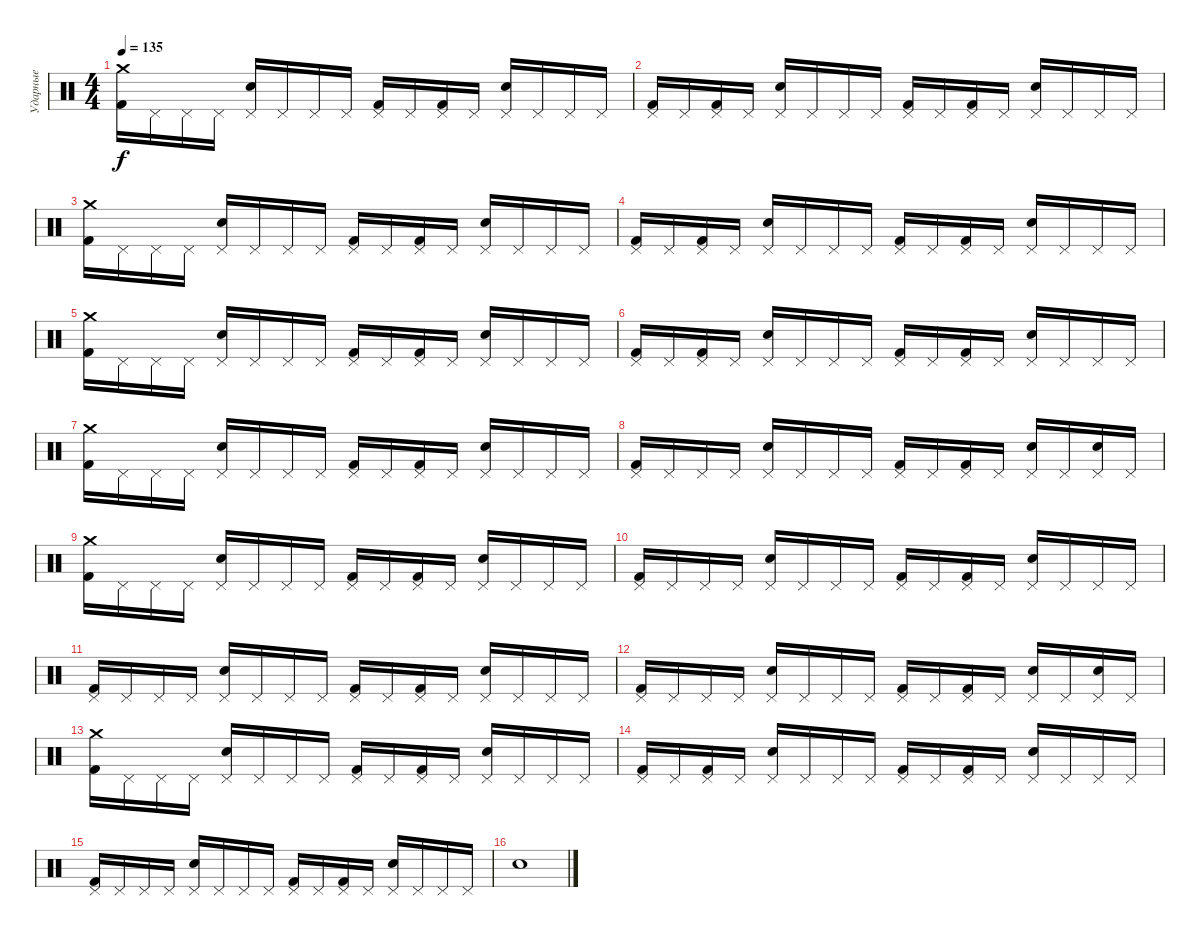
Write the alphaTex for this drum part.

\track ("Ударные" "Ударные") {instrument percussion}
\staff {score}
\articulation defaults
\ts (4 4)
\tempo 135
\clef neutral
\ks c
("Crash medium (hit)" "Kick (hit) 2").16{dy f} "Pedal Hi-Hat (hit)".16 "Pedal Hi-Hat (hit)".16 "Pedal Hi-Hat (hit)".16 ("Pedal Hi-Hat (hit)" "Snare (hit) 2").16 "Pedal Hi-Hat (hit)".16 "Pedal Hi-Hat (hit)".16 "Pedal Hi-Hat (hit)".16 ("Pedal Hi-Hat (hit)" "Kick (hit) 2").16 "Pedal Hi-Hat (hit)".16 ("Pedal Hi-Hat (hit)" "Kick (hit) 2").16 "Pedal Hi-Hat (hit)".16 ("Pedal Hi-Hat (hit)" "Snare (hit) 2").16 "Pedal Hi-Hat (hit)".16 "Pedal Hi-Hat (hit)".16 "Pedal Hi-Hat (hit)".16 |
("Pedal Hi-Hat (hit)" "Kick (hit) 2").16 "Pedal Hi-Hat (hit)".16 ("Pedal Hi-Hat (hit)" "Kick (hit) 2").16 "Pedal Hi-Hat (hit)".16 ("Pedal Hi-Hat (hit)" "Snare (hit) 2").16 "Pedal Hi-Hat (hit)".16 "Pedal Hi-Hat (hit)".16 "Pedal Hi-Hat (hit)".16 ("Pedal Hi-Hat (hit)" "Kick (hit) 2").16 "Pedal Hi-Hat (hit)".16 ("Pedal Hi-Hat (hit)" "Kick (hit) 2").16 "Pedal Hi-Hat (hit)".16 ("Pedal Hi-Hat (hit)" "Snare (hit) 2").16 "Pedal Hi-Hat (hit)".16 "Pedal Hi-Hat (hit)".16 "Pedal Hi-Hat (hit)".16 |
("Crash medium (hit)" "Kick (hit) 2").16 "Pedal Hi-Hat (hit)".16 "Pedal Hi-Hat (hit)".16 "Pedal Hi-Hat (hit)".16 ("Pedal Hi-Hat (hit)" "Snare (hit) 2").16 "Pedal Hi-Hat (hit)".16 "Pedal Hi-Hat (hit)".16 "Pedal Hi-Hat (hit)".16 ("Pedal Hi-Hat (hit)" "Kick (hit) 2").16 "Pedal Hi-Hat (hit)".16 ("Pedal Hi-Hat (hit)" "Kick (hit) 2").16 "Pedal Hi-Hat (hit)".16 ("Pedal Hi-Hat (hit)" "Snare (hit) 2").16 "Pedal Hi-Hat (hit)".16 "Pedal Hi-Hat (hit)".16 "Pedal Hi-Hat (hit)".16 |
("Pedal Hi-Hat (hit)" "Kick (hit) 2").16 "Pedal Hi-Hat (hit)".16 ("Pedal Hi-Hat (hit)" "Kick (hit) 2").16 "Pedal Hi-Hat (hit)".16 ("Pedal Hi-Hat (hit)" "Snare (hit) 2").16 "Pedal Hi-Hat (hit)".16 "Pedal Hi-Hat (hit)".16 "Pedal Hi-Hat (hit)".16 ("Pedal Hi-Hat (hit)" "Kick (hit) 2").16 "Pedal Hi-Hat (hit)".16 ("Pedal Hi-Hat (hit)" "Kick (hit) 2").16 "Pedal Hi-Hat (hit)".16 ("Pedal Hi-Hat (hit)" "Snare (hit) 2").16 "Pedal Hi-Hat (hit)".16 "Pedal Hi-Hat (hit)".16 "Pedal Hi-Hat (hit)".16 |
("Crash medium (hit)" "Kick (hit) 2").16 "Pedal Hi-Hat (hit)".16 "Pedal Hi-Hat (hit)".16 "Pedal Hi-Hat (hit)".16 ("Pedal Hi-Hat (hit)" "Snare (hit) 2").16 "Pedal Hi-Hat (hit)".16 "Pedal Hi-Hat (hit)".16 "Pedal Hi-Hat (hit)".16 ("Pedal Hi-Hat (hit)" "Kick (hit) 2").16 "Pedal Hi-Hat (hit)".16 ("Pedal Hi-Hat (hit)" "Kick (hit) 2").16 "Pedal Hi-Hat (hit)".16 ("Pedal Hi-Hat (hit)" "Snare (hit) 2").16 "Pedal Hi-Hat (hit)".16 "Pedal Hi-Hat (hit)".16 "Pedal Hi-Hat (hit)".16 |
("Pedal Hi-Hat (hit)" "Kick (hit) 2").16 "Pedal Hi-Hat (hit)".16 ("Pedal Hi-Hat (hit)" "Kick (hit) 2").16 "Pedal Hi-Hat (hit)".16 ("Pedal Hi-Hat (hit)" "Snare (hit) 2").16 "Pedal Hi-Hat (hit)".16 "Pedal Hi-Hat (hit)".16 "Pedal Hi-Hat (hit)".16 ("Pedal Hi-Hat (hit)" "Kick (hit) 2").16 "Pedal Hi-Hat (hit)".16 ("Pedal Hi-Hat (hit)" "Kick (hit) 2").16 "Pedal Hi-Hat (hit)".16 ("Pedal Hi-Hat (hit)" "Snare (hit) 2").16 "Pedal Hi-Hat (hit)".16 "Pedal Hi-Hat (hit)".16 "Pedal Hi-Hat (hit)".16 |
("Crash medium (hit)" "Kick (hit) 2").16 "Pedal Hi-Hat (hit)".16 "Pedal Hi-Hat (hit)".16 "Pedal Hi-Hat (hit)".16 ("Pedal Hi-Hat (hit)" "Snare (hit) 2").16 "Pedal Hi-Hat (hit)".16 "Pedal Hi-Hat (hit)".16 "Pedal Hi-Hat (hit)".16 ("Pedal Hi-Hat (hit)" "Kick (hit) 2").16 "Pedal Hi-Hat (hit)".16 ("Pedal Hi-Hat (hit)" "Kick (hit) 2").16 "Pedal Hi-Hat (hit)".16 ("Pedal Hi-Hat (hit)" "Snare (hit) 2").16 "Pedal Hi-Hat (hit)".16 "Pedal Hi-Hat (hit)".16 "Pedal Hi-Hat (hit)".16 |
("Pedal Hi-Hat (hit)" "Kick (hit) 2").16 "Pedal Hi-Hat (hit)".16 "Pedal Hi-Hat (hit)".16 "Pedal Hi-Hat (hit)".16 ("Pedal Hi-Hat (hit)" "Snare (hit) 2").16 "Pedal Hi-Hat (hit)".16 "Pedal Hi-Hat (hit)".16 "Pedal Hi-Hat (hit)".16 ("Pedal Hi-Hat (hit)" "Kick (hit) 2").16 "Pedal Hi-Hat (hit)".16 ("Pedal Hi-Hat (hit)" "Kick (hit) 2").16 "Pedal Hi-Hat (hit)".16 ("Pedal Hi-Hat (hit)" "Snare (hit) 2").16 "Pedal Hi-Hat (hit)".16 ("Pedal Hi-Hat (hit)" "Snare (hit) 2").16 "Pedal Hi-Hat (hit)".16 |
("Crash medium (hit)" "Kick (hit) 2").16 "Pedal Hi-Hat (hit)".16 "Pedal Hi-Hat (hit)".16 "Pedal Hi-Hat (hit)".16 ("Pedal Hi-Hat (hit)" "Snare (hit) 2").16 "Pedal Hi-Hat (hit)".16 "Pedal Hi-Hat (hit)".16 "Pedal Hi-Hat (hit)".16 ("Pedal Hi-Hat (hit)" "Kick (hit) 2").16 "Pedal Hi-Hat (hit)".16 ("Pedal Hi-Hat (hit)" "Kick (hit) 2").16 "Pedal Hi-Hat (hit)".16 ("Pedal Hi-Hat (hit)" "Snare (hit) 2").16 "Pedal Hi-Hat (hit)".16 "Pedal Hi-Hat (hit)".16 "Pedal Hi-Hat (hit)".16 |
("Pedal Hi-Hat (hit)" "Kick (hit) 2").16 "Pedal Hi-Hat (hit)".16 "Pedal Hi-Hat (hit)".16 "Pedal Hi-Hat (hit)".16 ("Pedal Hi-Hat (hit)" "Snare (hit) 2").16 "Pedal Hi-Hat (hit)".16 "Pedal Hi-Hat (hit)".16 "Pedal Hi-Hat (hit)".16 ("Pedal Hi-Hat (hit)" "Kick (hit) 2").16 "Pedal Hi-Hat (hit)".16 ("Pedal Hi-Hat (hit)" "Kick (hit) 2").16 "Pedal Hi-Hat (hit)".16 ("Pedal Hi-Hat (hit)" "Snare (hit) 2").16 "Pedal Hi-Hat (hit)".16 "Pedal Hi-Hat (hit)".16 "Pedal Hi-Hat (hit)".16 |
("Pedal Hi-Hat (hit)" "Kick (hit) 2").16 "Pedal Hi-Hat (hit)".16 "Pedal Hi-Hat (hit)".16 "Pedal Hi-Hat (hit)".16 ("Pedal Hi-Hat (hit)" "Snare (hit) 2").16 "Pedal Hi-Hat (hit)".16 "Pedal Hi-Hat (hit)".16 "Pedal Hi-Hat (hit)".16 ("Pedal Hi-Hat (hit)" "Kick (hit) 2").16 "Pedal Hi-Hat (hit)".16 ("Pedal Hi-Hat (hit)" "Kick (hit) 2").16 "Pedal Hi-Hat (hit)".16 ("Pedal Hi-Hat (hit)" "Snare (hit) 2").16 "Pedal Hi-Hat (hit)".16 "Pedal Hi-Hat (hit)".16 "Pedal Hi-Hat (hit)".16 |
("Pedal Hi-Hat (hit)" "Kick (hit) 2").16 "Pedal Hi-Hat (hit)".16 "Pedal Hi-Hat (hit)".16 "Pedal Hi-Hat (hit)".16 ("Pedal Hi-Hat (hit)" "Snare (hit) 2").16 "Pedal Hi-Hat (hit)".16 "Pedal Hi-Hat (hit)".16 "Pedal Hi-Hat (hit)".16 ("Pedal Hi-Hat (hit)" "Kick (hit) 2").16 "Pedal Hi-Hat (hit)".16 ("Pedal Hi-Hat (hit)" "Kick (hit) 2").16 "Pedal Hi-Hat (hit)".16 ("Pedal Hi-Hat (hit)" "Snare (hit) 2").16 "Pedal Hi-Hat (hit)".16 ("Pedal Hi-Hat (hit)" "Snare (hit) 2").16 "Pedal Hi-Hat (hit)".16 |
("Crash medium (hit)" "Kick (hit) 2").16 "Pedal Hi-Hat (hit)".16 "Pedal Hi-Hat (hit)".16 "Pedal Hi-Hat (hit)".16 ("Pedal Hi-Hat (hit)" "Snare (hit) 2").16 "Pedal Hi-Hat (hit)".16 "Pedal Hi-Hat (hit)".16 "Pedal Hi-Hat (hit)".16 ("Pedal Hi-Hat (hit)" "Kick (hit) 2").16 "Pedal Hi-Hat (hit)".16 ("Pedal Hi-Hat (hit)" "Kick (hit) 2").16 "Pedal Hi-Hat (hit)".16 ("Pedal Hi-Hat (hit)" "Snare (hit) 2").16 "Pedal Hi-Hat (hit)".16 "Pedal Hi-Hat (hit)".16 "Pedal Hi-Hat (hit)".16 |
("Pedal Hi-Hat (hit)" "Kick (hit) 2").16 "Pedal Hi-Hat (hit)".16 ("Pedal Hi-Hat (hit)" "Kick (hit) 2").16 "Pedal Hi-Hat (hit)".16 ("Pedal Hi-Hat (hit)" "Snare (hit) 2").16 "Pedal Hi-Hat (hit)".16 "Pedal Hi-Hat (hit)".16 "Pedal Hi-Hat (hit)".16 ("Pedal Hi-Hat (hit)" "Kick (hit) 2").16 "Pedal Hi-Hat (hit)".16 ("Pedal Hi-Hat (hit)" "Kick (hit) 2").16 "Pedal Hi-Hat (hit)".16 ("Pedal Hi-Hat (hit)" "Snare (hit) 2").16 "Pedal Hi-Hat (hit)".16 "Pedal Hi-Hat (hit)".16 "Pedal Hi-Hat (hit)".16 |
("Pedal Hi-Hat (hit)" "Kick (hit) 2").16 "Pedal Hi-Hat (hit)".16 "Pedal Hi-Hat (hit)".16 "Pedal Hi-Hat (hit)".16 ("Pedal Hi-Hat (hit)" "Snare (hit) 2").16 "Pedal Hi-Hat (hit)".16 "Pedal Hi-Hat (hit)".16 "Pedal Hi-Hat (hit)".16 ("Pedal Hi-Hat (hit)" "Kick (hit) 2").16 "Pedal Hi-Hat (hit)".16 ("Pedal Hi-Hat (hit)" "Kick (hit) 2").16 "Pedal Hi-Hat (hit)".16 ("Pedal Hi-Hat (hit)" "Snare (hit) 2").16 "Pedal Hi-Hat (hit)".16 "Pedal Hi-Hat (hit)".16 "Pedal Hi-Hat (hit)".16 |
"Snare (hit) 2".1
